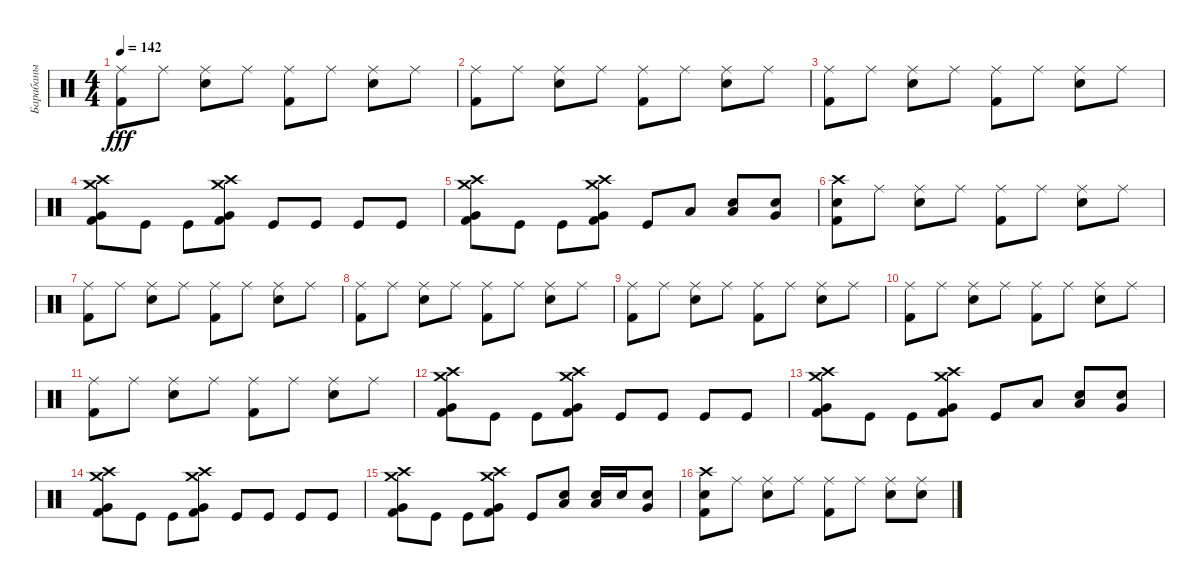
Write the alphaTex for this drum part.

\track ("Барабаны" "Барабаны") {instrument percussion}
\staff {score}
\articulation defaults
\ts (4 4)
\tempo 142
\clef neutral
\ks c
("Ride (middle)" "Kick (hit) 2").8{dy fff} "Ride (middle)".8 ("Ride (middle)" "Snare (hit) 2").8 "Ride (middle)".8 ("Ride (middle)" "Kick (hit) 2").8 "Ride (middle)".8 ("Ride (middle)" "Snare (hit) 2").8 "Ride (middle)".8 |
("Ride (middle)" "Kick (hit) 2").8 "Ride (middle)".8 ("Ride (middle)" "Snare (hit) 2").8 "Ride (middle)".8 ("Ride (middle)" "Kick (hit) 2").8 "Ride (middle)".8 ("Ride (middle)" "Snare (hit) 2").8 "Ride (middle)".8 |
("Ride (middle)" "Kick (hit) 2").8 "Ride (middle)".8 ("Ride (middle)" "Snare (hit) 2").8 "Ride (middle)".8 ("Ride (middle)" "Kick (hit) 2").8 "Ride (middle)".8 ("Ride (middle)" "Snare (hit) 2").8 "Ride (middle)".8 |
("Very Low Tom (hit)" "Crash medium (hit)" "Crash high (hit)" "Kick (hit) 2").8 "Kick (hit)".8 "Kick (hit)".8 ("Very Low Tom (hit)" "Crash medium (hit)" "Crash high (hit)" "Kick (hit) 2").8 "Kick (hit)".8 "Kick (hit)".8 "Kick (hit)".8 "Kick (hit)".8 |
("Very Low Tom (hit)" "Crash medium (hit)" "Crash high (hit)" "Kick (hit) 2").8 "Kick (hit)".8 "Kick (hit)".8 ("Crash medium (hit)" "Crash high (hit)" "Very Low Tom (hit)" "Kick (hit) 2").8 "Kick (hit)".8 "Low Floor Tom (hit)".8 ("Snare (hit) 2" "Low Floor Tom (hit)").8 ("Snare (hit) 2" "Very Low Tom (hit)").8 |
("Snare (hit) 2" "Crash high (hit)" "Kick (hit) 2").8 "Ride (middle)".8 ("Ride (middle)" "Snare (hit) 2").8 "Ride (middle)".8 ("Ride (middle)" "Kick (hit) 2").8 "Ride (middle)".8 ("Ride (middle)" "Snare (hit) 2").8 "Ride (middle)".8 |
("Ride (middle)" "Kick (hit) 2").8 "Ride (middle)".8 ("Ride (middle)" "Snare (hit) 2").8 "Ride (middle)".8 ("Ride (middle)" "Kick (hit) 2").8 "Ride (middle)".8 ("Ride (middle)" "Snare (hit) 2").8 "Ride (middle)".8 |
("Ride (middle)" "Kick (hit) 2").8 "Ride (middle)".8 ("Ride (middle)" "Snare (hit) 2").8 "Ride (middle)".8 ("Ride (middle)" "Kick (hit) 2").8 "Ride (middle)".8 ("Ride (middle)" "Snare (hit) 2").8 "Ride (middle)".8 |
("Ride (middle)" "Kick (hit) 2").8 "Ride (middle)".8 ("Ride (middle)" "Snare (hit) 2").8 "Ride (middle)".8 ("Ride (middle)" "Kick (hit) 2").8 "Ride (middle)".8 ("Ride (middle)" "Snare (hit) 2").8 "Ride (middle)".8 |
("Ride (middle)" "Kick (hit) 2").8 "Ride (middle)".8 ("Ride (middle)" "Snare (hit) 2").8 "Ride (middle)".8 ("Ride (middle)" "Kick (hit) 2").8 "Ride (middle)".8 ("Ride (middle)" "Snare (hit) 2").8 "Ride (middle)".8 |
("Ride (middle)" "Kick (hit) 2").8 "Ride (middle)".8 ("Ride (middle)" "Snare (hit) 2").8 "Ride (middle)".8 ("Ride (middle)" "Kick (hit) 2").8 "Ride (middle)".8 ("Ride (middle)" "Snare (hit) 2").8 "Ride (middle)".8 |
("Very Low Tom (hit)" "Crash medium (hit)" "Crash high (hit)" "Kick (hit) 2").8 "Kick (hit)".8 "Kick (hit)".8 ("Very Low Tom (hit)" "Crash medium (hit)" "Crash high (hit)" "Kick (hit) 2").8 "Kick (hit)".8 "Kick (hit)".8 "Kick (hit)".8 "Kick (hit)".8 |
("Very Low Tom (hit)" "Crash medium (hit)" "Crash high (hit)" "Kick (hit) 2").8 "Kick (hit)".8 "Kick (hit)".8 ("Crash medium (hit)" "Crash high (hit)" "Very Low Tom (hit)" "Kick (hit) 2").8 "Kick (hit)".8 "Low Floor Tom (hit)".8 ("Snare (hit) 2" "Low Floor Tom (hit)").8 ("Snare (hit) 2" "Very Low Tom (hit)").8 |
("Very Low Tom (hit)" "Crash medium (hit)" "Crash high (hit)" "Kick (hit) 2").8 "Kick (hit)".8 "Kick (hit)".8 ("Very Low Tom (hit)" "Crash medium (hit)" "Crash high (hit)" "Kick (hit) 2").8 "Kick (hit)".8 "Kick (hit)".8 "Kick (hit)".8 "Kick (hit)".8 |
("Very Low Tom (hit)" "Crash medium (hit)" "Crash high (hit)" "Kick (hit) 2").8 "Kick (hit)".8 "Kick (hit)".8 ("Crash medium (hit)" "Crash high (hit)" "Very Low Tom (hit)" "Kick (hit) 2").8 "Kick (hit)".8 ("Snare (hit) 2" "Low Floor Tom (hit)").8 ("Snare (hit) 2" "Low Floor Tom (hit)").16 "Snare (hit) 2".16 ("Snare (hit) 2" "Very Low Tom (hit)").8 |
("Crash high (hit)" "Snare (hit) 2" "Kick (hit) 2").8 "Ride (middle)".8 ("Snare (hit) 2" "Ride (middle)").8 "Ride (middle)".8 ("Ride (middle)" "Kick (hit) 2").8 "Ride (middle)".8 ("Ride (middle)" "Snare (hit) 2").8 ("Ride (middle)" "Snare (hit) 2").8
